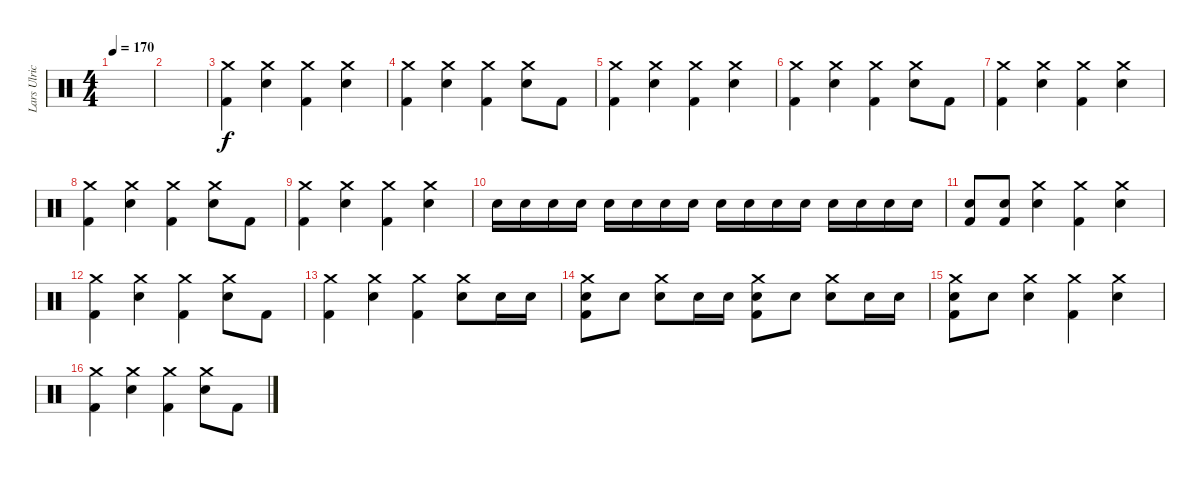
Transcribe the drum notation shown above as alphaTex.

\track ("Lars Ulrich" "Lars Ulric") {instrument percussion}
\staff {score}
\articulation defaults
\ts (4 4)
\tempo 170
\clef neutral
\ks c
|
|
("Crash medium (hit)" "Kick (hit) 2").4 ("Crash medium (hit)" "Electric Snare (hit)").4 ("Crash medium (hit)" "Kick (hit) 2").4 ("Crash medium (hit)" "Electric Snare (hit)").4 |
("Crash medium (hit)" "Kick (hit) 2").4 ("Crash medium (hit)" "Electric Snare (hit)").4 ("Crash medium (hit)" "Kick (hit) 2").4 ("Crash medium (hit)" "Electric Snare (hit)").8 "Kick (hit) 2".8 |
("Crash medium (hit)" "Kick (hit) 2").4 ("Crash medium (hit)" "Electric Snare (hit)").4 ("Crash medium (hit)" "Kick (hit) 2").4 ("Crash medium (hit)" "Electric Snare (hit)").4 |
("Crash medium (hit)" "Kick (hit) 2").4 ("Crash medium (hit)" "Electric Snare (hit)").4 ("Crash medium (hit)" "Kick (hit) 2").4 ("Crash medium (hit)" "Electric Snare (hit)").8 "Kick (hit) 2".8 |
("Crash medium (hit)" "Kick (hit) 2").4 ("Crash medium (hit)" "Electric Snare (hit)").4 ("Crash medium (hit)" "Kick (hit) 2").4 ("Crash medium (hit)" "Electric Snare (hit)").4 |
("Crash medium (hit)" "Kick (hit) 2").4 ("Crash medium (hit)" "Electric Snare (hit)").4 ("Crash medium (hit)" "Kick (hit) 2").4 ("Crash medium (hit)" "Electric Snare (hit)").8 "Kick (hit) 2".8 |
("Crash medium (hit)" "Kick (hit) 2").4 ("Crash medium (hit)" "Electric Snare (hit)").4 ("Crash medium (hit)" "Kick (hit) 2").4 ("Crash medium (hit)" "Electric Snare (hit)").4 |
"Electric Snare (hit)".16 "Electric Snare (hit)".16 "Electric Snare (hit)".16 "Electric Snare (hit)".16 "Electric Snare (hit)".16 "Electric Snare (hit)".16 "Electric Snare (hit)".16 "Electric Snare (hit)".16 "Electric Snare (hit)".16 "Electric Snare (hit)".16 "Electric Snare (hit)".16 "Electric Snare (hit)".16 "Electric Snare (hit)".16 "Electric Snare (hit)".16 "Electric Snare (hit)".16 "Electric Snare (hit)".16 |
("Electric Snare (hit)" "Kick (hit) 2").8 ("Electric Snare (hit)" "Kick (hit) 2").8 ("Crash medium (hit)" "Electric Snare (hit)").4 ("Crash medium (hit)" "Kick (hit) 2").4 ("Crash medium (hit)" "Electric Snare (hit)").4 |
("Crash medium (hit)" "Kick (hit) 2").4 ("Crash medium (hit)" "Electric Snare (hit)").4 ("Crash medium (hit)" "Kick (hit) 2").4 ("Crash medium (hit)" "Electric Snare (hit)").8 "Kick (hit) 2".8 |
("Crash medium (hit)" "Kick (hit) 2").4 ("Crash medium (hit)" "Electric Snare (hit)").4 ("Crash medium (hit)" "Kick (hit) 2").4 ("Crash medium (hit)" "Electric Snare (hit)").8 "Electric Snare (hit)".16 "Electric Snare (hit)".16 |
("Crash medium (hit)" "Electric Snare (hit)" "Kick (hit) 2").8 "Electric Snare (hit)".8 ("Crash medium (hit)" "Electric Snare (hit)").8 "Electric Snare (hit)".16 "Electric Snare (hit)".16 ("Crash medium (hit)" "Electric Snare (hit)" "Kick (hit) 2").8 "Electric Snare (hit)".8 ("Crash medium (hit)" "Electric Snare (hit)").8 "Electric Snare (hit)".16 "Electric Snare (hit)".16 |
("Crash medium (hit)" "Electric Snare (hit)" "Kick (hit) 2").8 "Electric Snare (hit)".8 ("Crash medium (hit)" "Electric Snare (hit)").4 ("Crash medium (hit)" "Kick (hit) 2").4 ("Crash medium (hit)" "Electric Snare (hit)").4 |
("Crash medium (hit)" "Kick (hit) 2").4 ("Crash medium (hit)" "Electric Snare (hit)").4 ("Crash medium (hit)" "Kick (hit) 2").4 ("Crash medium (hit)" "Electric Snare (hit)").8 "Kick (hit) 2".8
